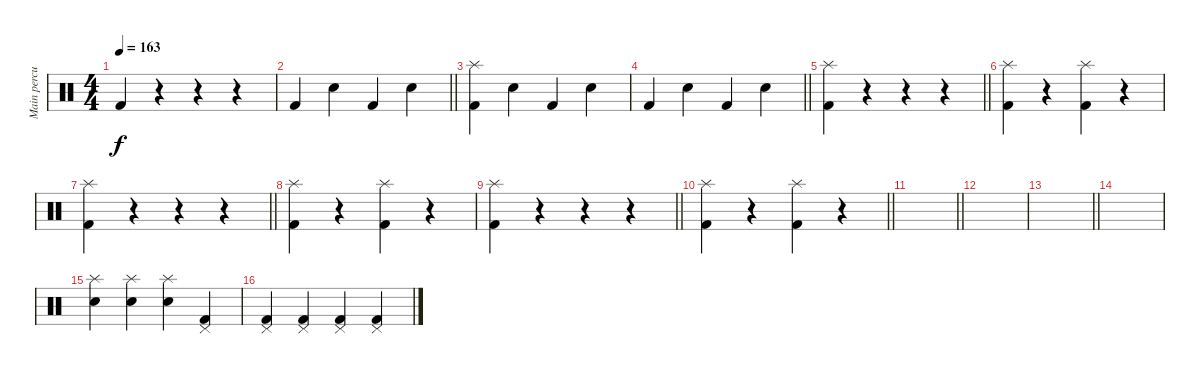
\track ("Main percussion" "Main percu") {instrument percussion}
\staff {score}
\articulation defaults
\ts (4 4)
\tempo 163
\clef neutral
\ks c "Kick (hit) 2".4{dy f}
r.4 r.4 r.4 |
\barLineRight lightlight "Kick (hit) 2".4 "Electric Snare (hit)".4 "Kick (hit) 2".4 "Electric Snare (hit)".4
|
\section ("" "")
("Kick (hit) 2" "Splash (hit)").4 "Electric Snare (hit)".4 "Kick (hit) 2".4 "Electric Snare (hit)".4 |
\barLineRight lightlight "Kick (hit) 2".4 "Electric Snare (hit)".4 "Kick (hit) 2".4 "Electric Snare (hit)".4
|
\barLineRight lightlight
("Kick (hit) 2" "Splash (hit)").4 r.4 r.4 r.4 |
("Kick (hit) 2" "Splash (hit)").4 r.4 ("Kick (hit) 2" "Splash (hit)").4 r.4 |
\barLineRight lightlight
("Kick (hit) 2" "Splash (hit)").4 r.4 r.4 r.4 |
("Kick (hit) 2" "Splash (hit)").4 r.4 ("Kick (hit) 2" "Splash (hit)").4 r.4 |
\barLineRight lightlight
("Kick (hit) 2" "Splash (hit)").4 r.4 r.4 r.4 |
\barLineRight lightlight
("Kick (hit) 2" "Splash (hit)").4 r.4 ("Kick (hit) 2" "Splash (hit)").4 r.4 |
\barLineRight lightlight
|
|
\barLineRight lightlight
|
|
("Electric Snare (hit)" "Splash (hit)").4 ("Electric Snare (hit)" "Splash (hit)").4 ("Electric Snare (hit)" "Splash (hit)").4 ("Kick (hit) 2" "Pedal Hi-Hat (hit)").4 |
("Kick (hit) 2" "Pedal Hi-Hat (hit)").4 ("Kick (hit) 2" "Pedal Hi-Hat (hit)").4 ("Kick (hit) 2" "Pedal Hi-Hat (hit)").4 ("Kick (hit) 2" "Pedal Hi-Hat (hit)").4
